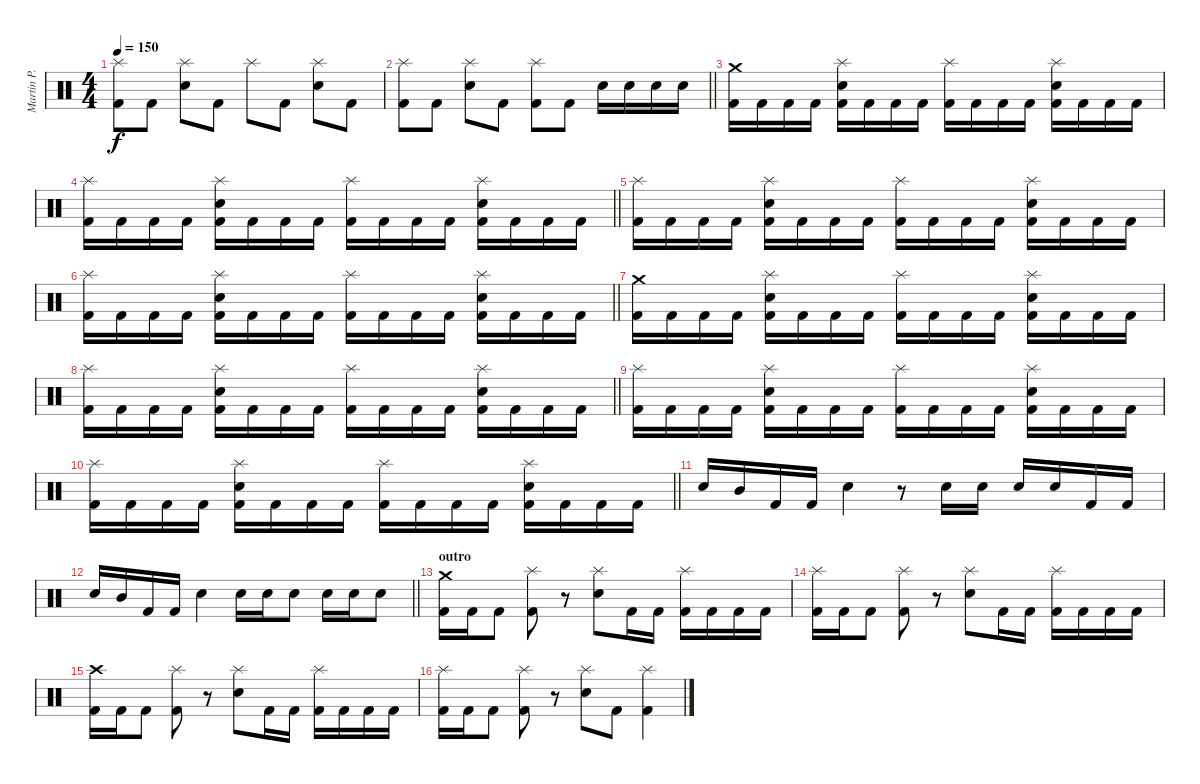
\track ("Martin P." "Martin P.") {instrument percussion}
\staff {score}
\articulation defaults
\ts (4 4)
\tempo 150
\clef neutral
\ks c
("Splash (hit)" "Kick (hit) 2").8{dy f} "Kick (hit) 2".8 ("Electric Snare (hit)" "Splash (hit)").8 "Kick (hit) 2".8 "Splash (hit)".8 "Kick (hit) 2".8 ("Electric Snare (hit)" "Splash (hit)").8 "Kick (hit) 2".8 |
\barLineRight lightlight
("Kick (hit) 2" "Splash (hit)").8 "Kick (hit) 2".8 ("Electric Snare (hit)" "Splash (hit)").8 "Kick (hit) 2".8 ("Kick (hit) 2" "Splash (hit)").8 "Kick (hit) 2".8 "Electric Snare (hit)".16 "Electric Snare (hit)".16 "Electric Snare (hit)".16 "Electric Snare (hit)".16 |
("Crash medium (hit)" "Kick (hit) 2").16 "Kick (hit) 2".16 "Kick (hit) 2".16 "Kick (hit) 2".16 ("Splash (hit)" "Electric Snare (hit)" "Kick (hit) 2").16 "Kick (hit) 2".16 "Kick (hit) 2".16 "Kick (hit) 2".16 ("Splash (hit)" "Kick (hit) 2").16 "Kick (hit) 2".16 "Kick (hit) 2".16 "Kick (hit) 2".16 ("Splash (hit)" "Electric Snare (hit)" "Kick (hit) 2").16 "Kick (hit) 2".16 "Kick (hit) 2".16 "Kick (hit) 2".16 |
\barLineRight lightlight
("Splash (hit)" "Kick (hit) 2").16 "Kick (hit) 2".16 "Kick (hit) 2".16 "Kick (hit) 2".16 ("Splash (hit)" "Electric Snare (hit)" "Kick (hit) 2").16 "Kick (hit) 2".16 "Kick (hit) 2".16 "Kick (hit) 2".16 ("Splash (hit)" "Kick (hit) 2").16 "Kick (hit) 2".16 "Kick (hit) 2".16 "Kick (hit) 2".16 ("Splash (hit)" "Electric Snare (hit)" "Kick (hit) 2").16 "Kick (hit) 2".16 "Kick (hit) 2".16 "Kick (hit) 2".16 |
("Splash (hit)" "Kick (hit) 2").16 "Kick (hit) 2".16 "Kick (hit) 2".16 "Kick (hit) 2".16 ("Splash (hit)" "Electric Snare (hit)" "Kick (hit) 2").16 "Kick (hit) 2".16 "Kick (hit) 2".16 "Kick (hit) 2".16 ("Splash (hit)" "Kick (hit) 2").16 "Kick (hit) 2".16 "Kick (hit) 2".16 "Kick (hit) 2".16 ("Splash (hit)" "Electric Snare (hit)" "Kick (hit) 2").16 "Kick (hit) 2".16 "Kick (hit) 2".16 "Kick (hit) 2".16 |
\barLineRight lightlight
("Splash (hit)" "Kick (hit) 2").16 "Kick (hit) 2".16 "Kick (hit) 2".16 "Kick (hit) 2".16 ("Splash (hit)" "Electric Snare (hit)" "Kick (hit) 2").16 "Kick (hit) 2".16 "Kick (hit) 2".16 "Kick (hit) 2".16 ("Splash (hit)" "Kick (hit) 2").16 "Kick (hit) 2".16 "Kick (hit) 2".16 "Kick (hit) 2".16 ("Splash (hit)" "Electric Snare (hit)" "Kick (hit) 2").16 "Kick (hit) 2".16 "Kick (hit) 2".16 "Kick (hit) 2".16 |
("Crash medium (hit)" "Kick (hit) 2").16 "Kick (hit) 2".16 "Kick (hit) 2".16 "Kick (hit) 2".16 ("Splash (hit)" "Electric Snare (hit)" "Kick (hit) 2").16 "Kick (hit) 2".16 "Kick (hit) 2".16 "Kick (hit) 2".16 ("Splash (hit)" "Kick (hit) 2").16 "Kick (hit) 2".16 "Kick (hit) 2".16 "Kick (hit) 2".16 ("Splash (hit)" "Electric Snare (hit)" "Kick (hit) 2").16 "Kick (hit) 2".16 "Kick (hit) 2".16 "Kick (hit) 2".16 |
\barLineRight lightlight
("Splash (hit)" "Kick (hit) 2").16 "Kick (hit) 2".16 "Kick (hit) 2".16 "Kick (hit) 2".16 ("Splash (hit)" "Electric Snare (hit)" "Kick (hit) 2").16 "Kick (hit) 2".16 "Kick (hit) 2".16 "Kick (hit) 2".16 ("Splash (hit)" "Kick (hit) 2").16 "Kick (hit) 2".16 "Kick (hit) 2".16 "Kick (hit) 2".16 ("Splash (hit)" "Electric Snare (hit)" "Kick (hit) 2").16 "Kick (hit) 2".16 "Kick (hit) 2".16 "Kick (hit) 2".16 |
("Splash (hit)" "Kick (hit) 2").16 "Kick (hit) 2".16 "Kick (hit) 2".16 "Kick (hit) 2".16 ("Splash (hit)" "Electric Snare (hit)" "Kick (hit) 2").16 "Kick (hit) 2".16 "Kick (hit) 2".16 "Kick (hit) 2".16 ("Splash (hit)" "Kick (hit) 2").16 "Kick (hit) 2".16 "Kick (hit) 2".16 "Kick (hit) 2".16 ("Splash (hit)" "Electric Snare (hit)" "Kick (hit) 2").16 "Kick (hit) 2".16 "Kick (hit) 2".16 "Kick (hit) 2".16 |
\barLineRight lightlight
("Splash (hit)" "Kick (hit) 2").16 "Kick (hit) 2".16 "Kick (hit) 2".16 "Kick (hit) 2".16 ("Splash (hit)" "Electric Snare (hit)" "Kick (hit) 2").16 "Kick (hit) 2".16 "Kick (hit) 2".16 "Kick (hit) 2".16 ("Splash (hit)" "Kick (hit) 2").16 "Kick (hit) 2".16 "Kick (hit) 2".16 "Kick (hit) 2".16 ("Splash (hit)" "Electric Snare (hit)" "Kick (hit) 2").16 "Kick (hit) 2".16 "Kick (hit) 2".16 "Kick (hit) 2".16 |
"Electric Snare (hit)".16 "Mid Tom (hit)".16 "Kick (hit) 2".16 "Kick (hit) 2".16 "Electric Snare (hit)".4 r.8 "Electric Snare (hit)".16 "Electric Snare (hit)".16 "Electric Snare (hit)".16 "Electric Snare (hit)".16 "Kick (hit) 2".16 "Kick (hit) 2".16 |
\barLineRight lightlight "Electric Snare (hit)".16 "Mid Tom (hit)".16 "Kick (hit) 2".16 "Kick (hit) 2".16 "Electric Snare (hit)".4 "Electric Snare (hit)".16 "Electric Snare (hit)".16 "Electric Snare (hit)".8 "Electric Snare (hit)".16 "Electric Snare (hit)".16 "Electric Snare (hit)".8
|
\section ("" "outro")
("Crash medium (hit)" "Kick (hit) 2").16 "Kick (hit) 2".16 "Kick (hit) 2".8 ("Splash (hit)" "Kick (hit) 2").8 r.8 ("Splash (hit)" "Electric Snare (hit)").8 "Kick (hit) 2".16 "Kick (hit) 2".16 ("Splash (hit)" "Kick (hit) 2").16 "Kick (hit) 2".16 "Kick (hit) 2".16 "Kick (hit) 2".16 |
("Splash (hit)" "Kick (hit) 2").16 "Kick (hit) 2".16 "Kick (hit) 2".8 ("Splash (hit)" "Kick (hit) 2").8 r.8 ("Splash (hit)" "Electric Snare (hit)").8 "Kick (hit) 2".16 "Kick (hit) 2".16 ("Splash (hit)" "Kick (hit) 2").16 "Kick (hit) 2".16 "Kick (hit) 2".16 "Kick (hit) 2".16 |
("Crash high (hit)" "Kick (hit) 2").16 "Kick (hit) 2".16 "Kick (hit) 2".8 ("Splash (hit)" "Kick (hit) 2").8 r.8 ("Splash (hit)" "Electric Snare (hit)").8 "Kick (hit) 2".16 "Kick (hit) 2".16 ("Splash (hit)" "Kick (hit) 2").16 "Kick (hit) 2".16 "Kick (hit) 2".16 "Kick (hit) 2".16 |
("Splash (hit)" "Kick (hit) 2").16 "Kick (hit) 2".16 "Kick (hit) 2".8 ("Splash (hit)" "Kick (hit) 2").8 r.8 ("Splash (hit)" "Electric Snare (hit)").8 "Kick (hit) 2".8 ("Splash (hit)" "Kick (hit) 2").4
